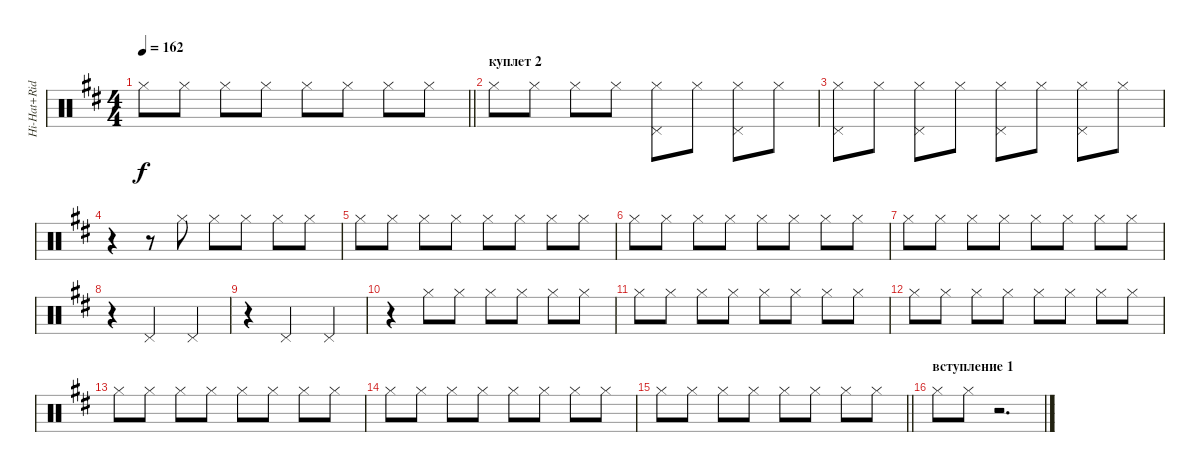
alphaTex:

\track ("Hi-Hat+Ride" "Hi-Hat+Rid") {instrument percussion}
\staff {score}
\articulation defaults
\ts (4 4)
\tempo 162
\clef neutral
\barLineRight lightlight
\ks bminor "Hi-Hat (closed)".8{dy f} "Hi-Hat (closed)".8 "Hi-Hat (closed)".8 "Hi-Hat (closed)".8 "Hi-Hat (closed)".8 "Hi-Hat (closed)".8 "Hi-Hat (closed)".8 "Hi-Hat (closed)".8
|
\section ("" "куплет 2")
"Hi-Hat (closed)".8 "Hi-Hat (closed)".8 "Hi-Hat (closed)".8 "Hi-Hat (closed)".8 ("Hi-Hat (closed)" "Pedal Hi-Hat (hit)").8 "Hi-Hat (closed)".8 ("Hi-Hat (closed)" "Pedal Hi-Hat (hit)").8 "Hi-Hat (closed)".8 |
("Hi-Hat (closed)" "Pedal Hi-Hat (hit)").8 "Hi-Hat (closed)".8 ("Hi-Hat (closed)" "Pedal Hi-Hat (hit)").8 "Hi-Hat (closed)".8 ("Hi-Hat (closed)" "Pedal Hi-Hat (hit)").8 "Hi-Hat (closed)".8 ("Hi-Hat (closed)" "Pedal Hi-Hat (hit)").8 "Hi-Hat (closed)".8 |
r.4 r.8 "Hi-Hat (closed)".8 "Hi-Hat (closed)".8 "Hi-Hat (closed)".8 "Hi-Hat (closed)".8 "Hi-Hat (closed)".8 |
"Hi-Hat (closed)".8 "Hi-Hat (closed)".8 "Hi-Hat (closed)".8 "Hi-Hat (closed)".8 "Hi-Hat (closed)".8 "Hi-Hat (closed)".8 "Hi-Hat (closed)".8 "Hi-Hat (closed)".8 |
"Hi-Hat (closed)".8 "Hi-Hat (closed)".8 "Hi-Hat (closed)".8 "Hi-Hat (closed)".8 "Hi-Hat (closed)".8 "Hi-Hat (closed)".8 "Hi-Hat (closed)".8 "Hi-Hat (closed)".8 |
"Hi-Hat (closed)".8 "Hi-Hat (closed)".8 "Hi-Hat (closed)".8 "Hi-Hat (closed)".8 "Hi-Hat (closed)".8 "Hi-Hat (closed)".8 "Hi-Hat (closed)".8 "Hi-Hat (closed)".8 |
r.4 "Pedal Hi-Hat (hit)".2 "Pedal Hi-Hat (hit)".4 |
r.4 "Pedal Hi-Hat (hit)".2 "Pedal Hi-Hat (hit)".4 |
r.4 "Hi-Hat (closed)".8 "Hi-Hat (closed)".8 "Hi-Hat (closed)".8 "Hi-Hat (closed)".8 "Hi-Hat (closed)".8 "Hi-Hat (closed)".8 |
"Hi-Hat (closed)".8 "Hi-Hat (closed)".8 "Hi-Hat (closed)".8 "Hi-Hat (closed)".8 "Hi-Hat (closed)".8 "Hi-Hat (closed)".8 "Hi-Hat (closed)".8 "Hi-Hat (closed)".8 |
"Hi-Hat (closed)".8 "Hi-Hat (closed)".8 "Hi-Hat (closed)".8 "Hi-Hat (closed)".8 "Hi-Hat (closed)".8 "Hi-Hat (closed)".8 "Hi-Hat (closed)".8 "Hi-Hat (closed)".8 |
"Hi-Hat (closed)".8 "Hi-Hat (closed)".8 "Hi-Hat (closed)".8 "Hi-Hat (closed)".8 "Hi-Hat (closed)".8 "Hi-Hat (closed)".8 "Hi-Hat (closed)".8 "Hi-Hat (closed)".8 |
"Hi-Hat (closed)".8 "Hi-Hat (closed)".8 "Hi-Hat (closed)".8 "Hi-Hat (closed)".8 "Hi-Hat (closed)".8 "Hi-Hat (closed)".8 "Hi-Hat (closed)".8 "Hi-Hat (closed)".8 |
\barLineRight lightlight "Hi-Hat (closed)".8 "Hi-Hat (closed)".8 "Hi-Hat (closed)".8 "Hi-Hat (closed)".8 "Hi-Hat (closed)".8 "Hi-Hat (closed)".8 "Hi-Hat (closed)".8 "Hi-Hat (closed)".8
|
\section ("" "вступление 1")
"Hi-Hat (closed)".8 "Hi-Hat (closed)".8 r.2{d}
